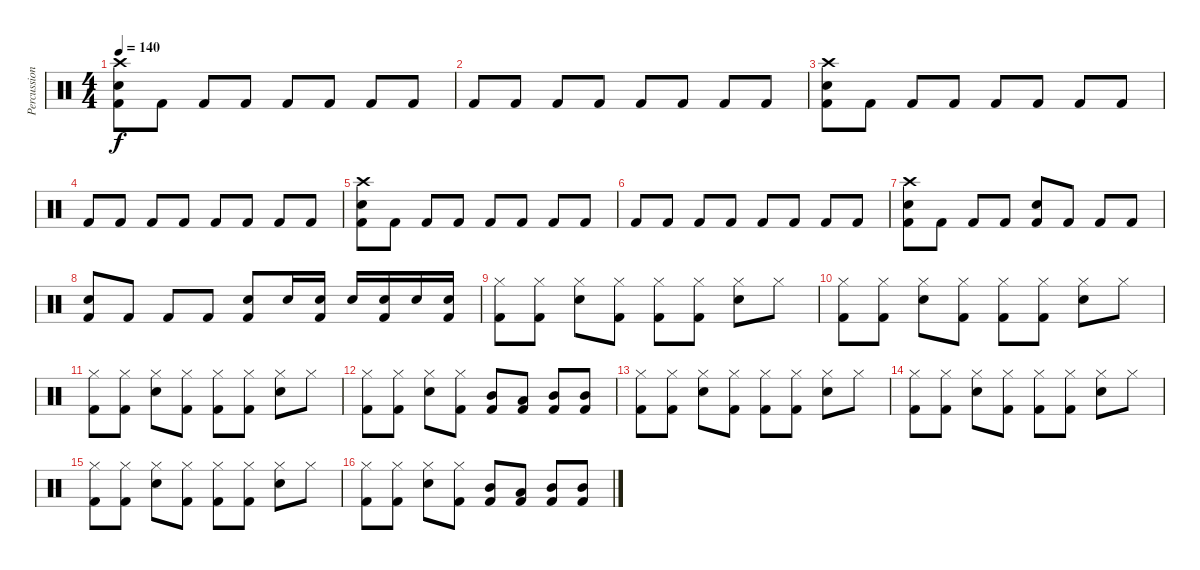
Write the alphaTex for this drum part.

\track ("Percussion" "Percussion") {instrument percussion}
\staff {score}
\articulation defaults
\ts (4 4)
\tempo 140
\clef neutral
\ks c
("Crash high (hit)" "Snare (hit) 2" "Kick (hit) 2").8{dy f} "Kick (hit) 2".8 "Kick (hit) 2".8 "Kick (hit) 2".8 "Kick (hit) 2".8 "Kick (hit) 2".8 "Kick (hit) 2".8 "Kick (hit) 2".8 |
"Kick (hit) 2".8 "Kick (hit) 2".8 "Kick (hit) 2".8 "Kick (hit) 2".8 "Kick (hit) 2".8 "Kick (hit) 2".8 "Kick (hit) 2".8 "Kick (hit) 2".8 |
("Crash high (hit)" "Snare (hit) 2" "Kick (hit) 2").8 "Kick (hit) 2".8 "Kick (hit) 2".8 "Kick (hit) 2".8 "Kick (hit) 2".8 "Kick (hit) 2".8 "Kick (hit) 2".8 "Kick (hit) 2".8 |
"Kick (hit) 2".8 "Kick (hit) 2".8 "Kick (hit) 2".8 "Kick (hit) 2".8 "Kick (hit) 2".8 "Kick (hit) 2".8 "Kick (hit) 2".8 "Kick (hit) 2".8 |
("Crash high (hit)" "Snare (hit) 2" "Kick (hit) 2").8 "Kick (hit) 2".8 "Kick (hit) 2".8 "Kick (hit) 2".8 "Kick (hit) 2".8 "Kick (hit) 2".8 "Kick (hit) 2".8 "Kick (hit) 2".8 |
"Kick (hit) 2".8 "Kick (hit) 2".8 "Kick (hit) 2".8 "Kick (hit) 2".8 "Kick (hit) 2".8 "Kick (hit) 2".8 "Kick (hit) 2".8 "Kick (hit) 2".8 |
("Crash high (hit)" "Snare (hit) 2" "Kick (hit) 2").8 "Kick (hit) 2".8 "Kick (hit) 2".8 "Kick (hit) 2".8 ("Snare (hit) 2" "Kick (hit) 2").8 "Kick (hit) 2".8 "Kick (hit) 2".8 "Kick (hit) 2".8 |
("Snare (hit) 2" "Kick (hit) 2").8 "Kick (hit) 2".8 "Kick (hit) 2".8 "Kick (hit) 2".8 ("Snare (hit) 2" "Kick (hit) 2").8 "Snare (hit) 2".16 ("Snare (hit) 2" "Kick (hit) 2").16 "Snare (hit) 2".16 ("Snare (hit) 2" "Kick (hit) 2").16 "Snare (hit) 2".16 ("Snare (hit) 2" "Kick (hit) 2").16 |
("Hi-Hat (closed)" "Kick (hit) 2").8 ("Hi-Hat (closed)" "Kick (hit) 2").8 ("Hi-Hat (closed)" "Snare (hit) 2").8 ("Hi-Hat (closed)" "Kick (hit) 2").8 ("Hi-Hat (closed)" "Kick (hit) 2").8 ("Hi-Hat (closed)" "Kick (hit) 2").8 ("Hi-Hat (closed)" "Snare (hit) 2").8 "Hi-Hat (closed)".8 |
("Hi-Hat (closed)" "Kick (hit) 2").8 ("Hi-Hat (closed)" "Kick (hit) 2").8 ("Hi-Hat (closed)" "Snare (hit) 2").8 ("Hi-Hat (closed)" "Kick (hit) 2").8 ("Hi-Hat (closed)" "Kick (hit) 2").8 ("Hi-Hat (closed)" "Kick (hit) 2").8 ("Hi-Hat (closed)" "Snare (hit) 2").8 "Hi-Hat (closed)".8 |
("Hi-Hat (closed)" "Kick (hit) 2").8 ("Hi-Hat (closed)" "Kick (hit) 2").8 ("Hi-Hat (closed)" "Snare (hit) 2").8 ("Hi-Hat (closed)" "Kick (hit) 2").8 ("Hi-Hat (closed)" "Kick (hit) 2").8 ("Hi-Hat (closed)" "Kick (hit) 2").8 ("Hi-Hat (closed)" "Snare (hit) 2").8 "Hi-Hat (closed)".8 |
("Hi-Hat (closed)" "Kick (hit) 2").8 ("Hi-Hat (closed)" "Kick (hit) 2").8 ("Hi-Hat (closed)" "Snare (hit) 2").8 ("Hi-Hat (closed)" "Kick (hit) 2").8 ("Mid Tom (hit)" "Kick (hit) 2").8 ("Low Tom (hit)" "Kick (hit) 2").8 ("Mid Tom (hit)" "Kick (hit) 2").8 ("Mid Tom (hit)" "Kick (hit) 2").8 |
("Hi-Hat (closed)" "Kick (hit) 2").8 ("Hi-Hat (closed)" "Kick (hit) 2").8 ("Hi-Hat (closed)" "Snare (hit) 2").8 ("Hi-Hat (closed)" "Kick (hit) 2").8 ("Hi-Hat (closed)" "Kick (hit) 2").8 ("Hi-Hat (closed)" "Kick (hit) 2").8 ("Hi-Hat (closed)" "Snare (hit) 2").8 "Hi-Hat (closed)".8 |
("Hi-Hat (closed)" "Kick (hit) 2").8 ("Hi-Hat (closed)" "Kick (hit) 2").8 ("Hi-Hat (closed)" "Snare (hit) 2").8 ("Hi-Hat (closed)" "Kick (hit) 2").8 ("Hi-Hat (closed)" "Kick (hit) 2").8 ("Hi-Hat (closed)" "Kick (hit) 2").8 ("Hi-Hat (closed)" "Snare (hit) 2").8 "Hi-Hat (closed)".8 |
("Hi-Hat (closed)" "Kick (hit) 2").8 ("Hi-Hat (closed)" "Kick (hit) 2").8 ("Hi-Hat (closed)" "Snare (hit) 2").8 ("Hi-Hat (closed)" "Kick (hit) 2").8 ("Hi-Hat (closed)" "Kick (hit) 2").8 ("Hi-Hat (closed)" "Kick (hit) 2").8 ("Hi-Hat (closed)" "Snare (hit) 2").8 "Hi-Hat (closed)".8 |
("Hi-Hat (closed)" "Kick (hit) 2").8 ("Hi-Hat (closed)" "Kick (hit) 2").8 ("Hi-Hat (closed)" "Snare (hit) 2").8 ("Hi-Hat (closed)" "Kick (hit) 2").8 ("Mid Tom (hit)" "Kick (hit) 2").8 ("Low Tom (hit)" "Kick (hit) 2").8 ("Mid Tom (hit)" "Kick (hit) 2").8 ("Mid Tom (hit)" "Kick (hit) 2").8
